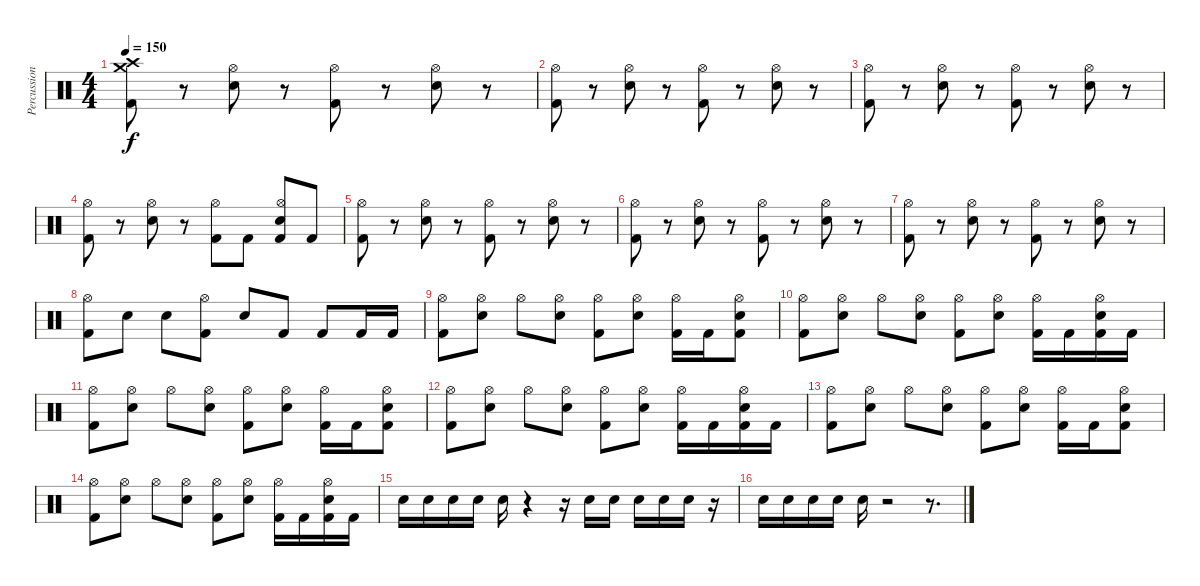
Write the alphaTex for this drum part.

\track ("Percussion" "Percussion") {instrument percussion}
\staff {score}
\articulation defaults
\ts (4 4)
\tempo 150
\clef neutral
\ks c
("Crash high (hit)" "Kick (hit) 2" "Crash medium (hit)").8{dy f} r.8 ("Hi-Hat (open)" "Electric Snare (hit)").8 r.8 ("Hi-Hat (open)" "Kick (hit) 2").8 r.8 ("Hi-Hat (open)" "Electric Snare (hit)").8 r.8 |
("Hi-Hat (open)" "Kick (hit) 2").8 r.8 ("Hi-Hat (open)" "Electric Snare (hit)").8 r.8 ("Hi-Hat (open)" "Kick (hit) 2").8 r.8 ("Hi-Hat (open)" "Electric Snare (hit)").8 r.8 |
("Hi-Hat (open)" "Kick (hit) 2").8 r.8 ("Hi-Hat (open)" "Electric Snare (hit)").8 r.8 ("Hi-Hat (open)" "Kick (hit) 2").8 r.8 ("Hi-Hat (open)" "Electric Snare (hit)").8 r.8 |
("Hi-Hat (open)" "Kick (hit) 2").8 r.8 ("Hi-Hat (open)" "Electric Snare (hit)").8 r.8 ("Hi-Hat (open)" "Kick (hit) 2").8 "Kick (hit) 2".8 ("Hi-Hat (open)" "Kick (hit) 2" "Electric Snare (hit)").8 "Kick (hit) 2".8 |
("Hi-Hat (open)" "Kick (hit) 2").8 r.8 ("Hi-Hat (open)" "Electric Snare (hit)").8 r.8 ("Hi-Hat (open)" "Kick (hit) 2").8 r.8 ("Hi-Hat (open)" "Electric Snare (hit)").8 r.8 |
("Hi-Hat (open)" "Kick (hit) 2").8 r.8 ("Hi-Hat (open)" "Electric Snare (hit)").8 r.8 ("Hi-Hat (open)" "Kick (hit) 2").8 r.8 ("Hi-Hat (open)" "Electric Snare (hit)").8 r.8 |
("Hi-Hat (open)" "Kick (hit) 2").8 r.8 ("Hi-Hat (open)" "Electric Snare (hit)").8 r.8 ("Hi-Hat (open)" "Kick (hit) 2").8 r.8 ("Hi-Hat (open)" "Electric Snare (hit)").8 r.8 |
("Hi-Hat (open)" "Kick (hit) 2").8 "Electric Snare (hit)".8 "Electric Snare (hit)".8 ("Hi-Hat (open)" "Kick (hit) 2").8 "Electric Snare (hit)".8 "Kick (hit) 2".8 "Kick (hit) 2".8 "Kick (hit) 2".16 "Kick (hit) 2".16 |
("Hi-Hat (open)" "Kick (hit) 2").8 ("Hi-Hat (open)" "Electric Snare (hit)").8 "Hi-Hat (open)".8 ("Hi-Hat (open)" "Electric Snare (hit)").8 ("Hi-Hat (open)" "Kick (hit) 2").8 ("Hi-Hat (open)" "Electric Snare (hit)").8 ("Hi-Hat (open)" "Kick (hit) 2").16 "Kick (hit) 2".16 ("Hi-Hat (open)" "Kick (hit) 2" "Electric Snare (hit)").8 |
("Hi-Hat (open)" "Kick (hit) 2").8 ("Hi-Hat (open)" "Electric Snare (hit)").8 "Hi-Hat (open)".8 ("Hi-Hat (open)" "Electric Snare (hit)").8 ("Hi-Hat (open)" "Kick (hit) 2").8 ("Hi-Hat (open)" "Electric Snare (hit)").8 ("Hi-Hat (open)" "Kick (hit) 2").16 "Kick (hit) 2".16 ("Hi-Hat (open)" "Kick (hit) 2" "Electric Snare (hit)").16 "Kick (hit) 2".16 |
("Hi-Hat (open)" "Kick (hit) 2").8 ("Hi-Hat (open)" "Electric Snare (hit)").8 "Hi-Hat (open)".8 ("Hi-Hat (open)" "Electric Snare (hit)").8 ("Hi-Hat (open)" "Kick (hit) 2").8 ("Hi-Hat (open)" "Electric Snare (hit)").8 ("Hi-Hat (open)" "Kick (hit) 2").16 "Kick (hit) 2".16 ("Hi-Hat (open)" "Kick (hit) 2" "Electric Snare (hit)").8 |
("Hi-Hat (open)" "Kick (hit) 2").8 ("Hi-Hat (open)" "Electric Snare (hit)").8 "Hi-Hat (open)".8 ("Hi-Hat (open)" "Electric Snare (hit)").8 ("Hi-Hat (open)" "Kick (hit) 2").8 ("Hi-Hat (open)" "Electric Snare (hit)").8 ("Hi-Hat (open)" "Kick (hit) 2").16 "Kick (hit) 2".16 ("Hi-Hat (open)" "Kick (hit) 2" "Electric Snare (hit)").16 "Kick (hit) 2".16 |
("Hi-Hat (open)" "Kick (hit) 2").8 ("Hi-Hat (open)" "Electric Snare (hit)").8 "Hi-Hat (open)".8 ("Hi-Hat (open)" "Electric Snare (hit)").8 ("Hi-Hat (open)" "Kick (hit) 2").8 ("Hi-Hat (open)" "Electric Snare (hit)").8 ("Hi-Hat (open)" "Kick (hit) 2").16 "Kick (hit) 2".16 ("Hi-Hat (open)" "Kick (hit) 2" "Electric Snare (hit)").8 |
("Hi-Hat (open)" "Kick (hit) 2").8 ("Hi-Hat (open)" "Electric Snare (hit)").8 "Hi-Hat (open)".8 ("Hi-Hat (open)" "Electric Snare (hit)").8 ("Hi-Hat (open)" "Kick (hit) 2").8 ("Hi-Hat (open)" "Electric Snare (hit)").8 ("Hi-Hat (open)" "Kick (hit) 2").16 "Kick (hit) 2".16 ("Hi-Hat (open)" "Kick (hit) 2" "Electric Snare (hit)").16 "Kick (hit) 2".16 |
"Electric Snare (hit)".16 "Electric Snare (hit)".16 "Electric Snare (hit)".16 "Electric Snare (hit)".16 "Electric Snare (hit)".16 r.4 r.16 "Electric Snare (hit)".16 "Electric Snare (hit)".16 "Electric Snare (hit)".16 "Electric Snare (hit)".16 "Electric Snare (hit)".16 r.16 |
"Electric Snare (hit)".16 "Electric Snare (hit)".16 "Electric Snare (hit)".16 "Electric Snare (hit)".16 "Electric Snare (hit)".16 r.2 r.8{d}
